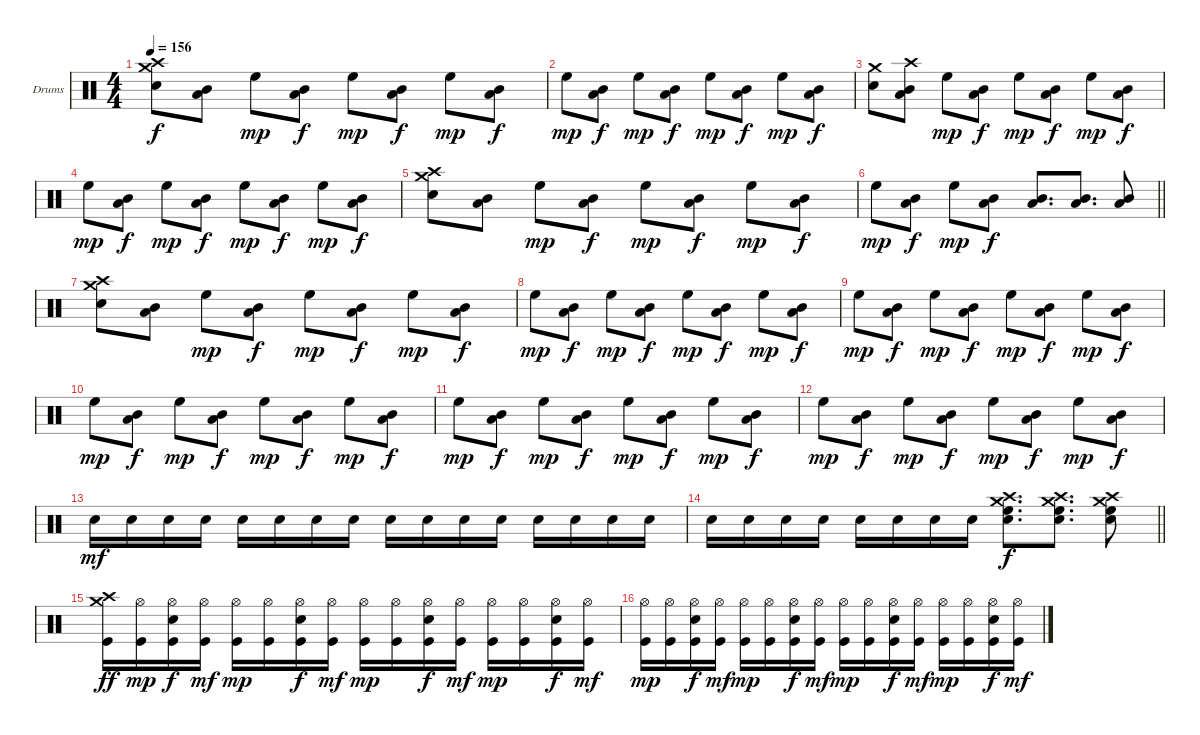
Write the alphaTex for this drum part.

\bracketExtendMode groupsimilarinstruments
\firstSystemTrackNameOrientation horizontal
\otherSystemsTrackNameOrientation horizontal
\track ("Drums" "Drums") {instrument percussion}
\staff {score}
\articulation defaults
\ts (4 4)
\tempo 156
\clef neutral
\ks c
("Crash medium (hit)" "Crash high (hit)" "Snare (hit) 2").8{dy f} ("Mid Tom (hit)" "Low Tom (hit)").8 "High Floor Tom (hit)".8{dy mp} ("Mid Tom (hit)" "Low Tom (hit)").8{dy f} "High Floor Tom (hit)".8{dy mp} ("Mid Tom (hit)" "Low Tom (hit)").8{dy f} "High Floor Tom (hit)".8{dy mp} ("Mid Tom (hit)" "Low Tom (hit)").8{dy f} |
"High Floor Tom (hit)".8{dy mp} ("Mid Tom (hit)" "Low Tom (hit)").8{dy f} "High Floor Tom (hit)".8{dy mp} ("Mid Tom (hit)" "Low Tom (hit)").8{dy f} "High Floor Tom (hit)".8{dy mp} ("Mid Tom (hit)" "Low Tom (hit)").8{dy f} "High Floor Tom (hit)".8{dy mp} ("Mid Tom (hit)" "Low Tom (hit)").8{dy f} |
("Crash medium (hit)" "Snare (hit) 2").8 ("Crash high (hit)" "Mid Tom (hit)" "Low Tom (hit)").8 "High Floor Tom (hit)".8{dy mp} ("Mid Tom (hit)" "Low Tom (hit)").8{dy f} "High Floor Tom (hit)".8{dy mp} ("Mid Tom (hit)" "Low Tom (hit)").8{dy f} "High Floor Tom (hit)".8{dy mp} ("Mid Tom (hit)" "Low Tom (hit)").8{dy f} |
"High Floor Tom (hit)".8{dy mp} ("Mid Tom (hit)" "Low Tom (hit)").8{dy f} "High Floor Tom (hit)".8{dy mp} ("Mid Tom (hit)" "Low Tom (hit)").8{dy f} "High Floor Tom (hit)".8{dy mp} ("Mid Tom (hit)" "Low Tom (hit)").8{dy f} "High Floor Tom (hit)".8{dy mp} ("Mid Tom (hit)" "Low Tom (hit)").8{dy f} |
("Crash medium (hit)" "Crash high (hit)" "Snare (hit) 2").8 ("Mid Tom (hit)" "Low Tom (hit)").8 "High Floor Tom (hit)".8{dy mp} ("Mid Tom (hit)" "Low Tom (hit)").8{dy f} "High Floor Tom (hit)".8{dy mp} ("Mid Tom (hit)" "Low Tom (hit)").8{dy f} "High Floor Tom (hit)".8{dy mp} ("Mid Tom (hit)" "Low Tom (hit)").8{dy f} |
\barLineRight lightlight "High Floor Tom (hit)".8{dy mp}
("Mid Tom (hit)" "Low Tom (hit)").8{dy f} "High Floor Tom (hit)".8{dy mp} ("Mid Tom (hit)" "Low Tom (hit)").8{dy f} ("Mid Tom (hit)" "Low Tom (hit)").8{d} ("Mid Tom (hit)" "Low Tom (hit)").8{d} ("Mid Tom (hit)" "Low Tom (hit)").8 |
("Crash medium (hit)" "Crash high (hit)" "Snare (hit) 2").8 ("Mid Tom (hit)" "Low Tom (hit)").8 "High Floor Tom (hit)".8{dy mp} ("Mid Tom (hit)" "Low Tom (hit)").8{dy f} "High Floor Tom (hit)".8{dy mp} ("Mid Tom (hit)" "Low Tom (hit)").8{dy f} "High Floor Tom (hit)".8{dy mp} ("Mid Tom (hit)" "Low Tom (hit)").8{dy f} |
"High Floor Tom (hit)".8{dy mp} ("Mid Tom (hit)" "Low Tom (hit)").8{dy f} "High Floor Tom (hit)".8{dy mp} ("Mid Tom (hit)" "Low Tom (hit)").8{dy f} "High Floor Tom (hit)".8{dy mp} ("Mid Tom (hit)" "Low Tom (hit)").8{dy f} "High Floor Tom (hit)".8{dy mp} ("Mid Tom (hit)" "Low Tom (hit)").8{dy f} |
"High Floor Tom (hit)".8{dy mp} ("Mid Tom (hit)" "Low Tom (hit)").8{dy f} "High Floor Tom (hit)".8{dy mp} ("Mid Tom (hit)" "Low Tom (hit)").8{dy f} "High Floor Tom (hit)".8{dy mp} ("Mid Tom (hit)" "Low Tom (hit)").8{dy f} "High Floor Tom (hit)".8{dy mp} ("Mid Tom (hit)" "Low Tom (hit)").8{dy f} |
"High Floor Tom (hit)".8{dy mp} ("Mid Tom (hit)" "Low Tom (hit)").8{dy f} "High Floor Tom (hit)".8{dy mp} ("Mid Tom (hit)" "Low Tom (hit)").8{dy f} "High Floor Tom (hit)".8{dy mp} ("Mid Tom (hit)" "Low Tom (hit)").8{dy f} "High Floor Tom (hit)".8{dy mp} ("Mid Tom (hit)" "Low Tom (hit)").8{dy f} |
"High Floor Tom (hit)".8{dy mp} ("Mid Tom (hit)" "Low Tom (hit)").8{dy f} "High Floor Tom (hit)".8{dy mp} ("Mid Tom (hit)" "Low Tom (hit)").8{dy f} "High Floor Tom (hit)".8{dy mp} ("Mid Tom (hit)" "Low Tom (hit)").8{dy f} "High Floor Tom (hit)".8{dy mp} ("Mid Tom (hit)" "Low Tom (hit)").8{dy f} |
"High Floor Tom (hit)".8{dy mp} ("Mid Tom (hit)" "Low Tom (hit)").8{dy f} "High Floor Tom (hit)".8{dy mp} ("Mid Tom (hit)" "Low Tom (hit)").8{dy f} "High Floor Tom (hit)".8{dy mp} ("Mid Tom (hit)" "Low Tom (hit)").8{dy f} "High Floor Tom (hit)".8{dy mp} ("Mid Tom (hit)" "Low Tom (hit)").8{dy f} |
"Snare (hit) 2".16{dy mf} "Snare (hit) 2".16 "Snare (hit) 2".16 "Snare (hit) 2".16 "Snare (hit) 2".16 "Snare (hit) 2".16 "Snare (hit) 2".16 "Snare (hit) 2".16 "Snare (hit) 2".16 "Snare (hit) 2".16 "Snare (hit) 2".16 "Snare (hit) 2".16 "Snare (hit) 2".16 "Snare (hit) 2".16 "Snare (hit) 2".16 "Snare (hit) 2".16 |
\barLineRight lightlight "Snare (hit) 2".16 "Snare (hit) 2".16 "Snare (hit) 2".16 "Snare (hit) 2".16 "Snare (hit) 2".16 "Snare (hit) 2".16 "Snare (hit) 2".16 "Snare (hit) 2".16
("Crash medium (hit)" "Crash high (hit)" "Snare (hit) 2" "High Floor Tom (hit)").8{d dy f} ("Crash medium (hit)" "Crash high (hit)" "Snare (hit) 2" "High Floor Tom (hit)").8{d} ("Crash medium (hit)" "Crash high (hit)" "Snare (hit) 2" "High Floor Tom (hit)").8 |
("Crash medium (hit)" "Crash high (hit)" "Kick (hit)").16{dy ff} ("Hi-Hat (open)" "Kick (hit)").16{dy mp} ("Hi-Hat (open)" "Snare (hit) 2" "Kick (hit)").16{dy f} ("Hi-Hat (open)" "Kick (hit)").16{dy mf} ("Hi-Hat (open)" "Kick (hit)").16{dy mp} ("Hi-Hat (open)" "Kick (hit)").16 ("Hi-Hat (open)" "Snare (hit) 2" "Kick (hit)").16{dy f} ("Hi-Hat (open)" "Kick (hit)").16{dy mf} ("Hi-Hat (open)" "Kick (hit)").16{dy mp} ("Hi-Hat (open)" "Kick (hit)").16 ("Hi-Hat (open)" "Snare (hit) 2" "Kick (hit)").16{dy f} ("Hi-Hat (open)" "Kick (hit)").16{dy mf} ("Hi-Hat (open)" "Kick (hit)").16{dy mp} ("Hi-Hat (open)" "Kick (hit)").16 ("Hi-Hat (open)" "Snare (hit) 2" "Kick (hit)").16{dy f} ("Hi-Hat (open)" "Kick (hit)").16{dy mf} |
("Hi-Hat (open)" "Kick (hit)").16{dy mp} ("Hi-Hat (open)" "Kick (hit)").16 ("Hi-Hat (open)" "Snare (hit) 2" "Kick (hit)").16{dy f} ("Hi-Hat (open)" "Kick (hit)").16{dy mf} ("Hi-Hat (open)" "Kick (hit)").16{dy mp} ("Hi-Hat (open)" "Kick (hit)").16 ("Hi-Hat (open)" "Snare (hit) 2" "Kick (hit)").16{dy f} ("Hi-Hat (open)" "Kick (hit)").16{dy mf} ("Hi-Hat (open)" "Kick (hit)").16{dy mp} ("Hi-Hat (open)" "Kick (hit)").16 ("Hi-Hat (open)" "Snare (hit) 2" "Kick (hit)").16{dy f} ("Hi-Hat (open)" "Kick (hit)").16{dy mf} ("Hi-Hat (open)" "Kick (hit)").16{dy mp} ("Hi-Hat (open)" "Kick (hit)").16 ("Hi-Hat (open)" "Snare (hit) 2" "Kick (hit)").16{dy f} ("Hi-Hat (open)" "Kick (hit)").16{dy mf}
